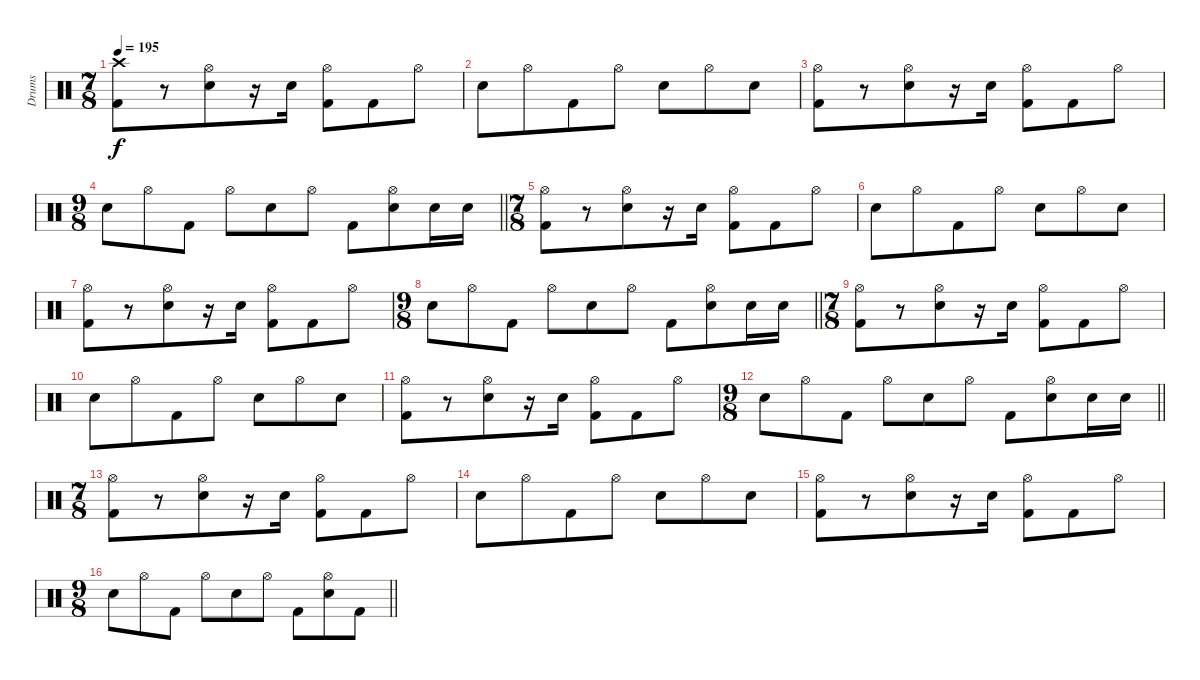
\track ("Drums" "Drums") {instrument percussion}
\staff {score}
\articulation defaults
\ts (7 8)
\tempo 195
\clef neutral
\ks c
("Crash high (hit)" "Kick (hit) 2").8{dy f} r.8 ("Hi-Hat (open)" "Electric Snare (hit)").8 r.16 "Electric Snare (hit)".16 ("Hi-Hat (open)" "Kick (hit) 2").8 "Kick (hit) 2".8 "Hi-Hat (open)".8 |
"Electric Snare (hit)".8 "Hi-Hat (open)".8 "Kick (hit) 2".8 "Hi-Hat (open)".8 "Electric Snare (hit)".8 "Hi-Hat (open)".8 "Electric Snare (hit)".8 |
("Hi-Hat (open)" "Kick (hit) 2").8 r.8 ("Hi-Hat (open)" "Electric Snare (hit)").8 r.16 "Electric Snare (hit)".16 ("Hi-Hat (open)" "Kick (hit) 2").8 "Kick (hit) 2".8 "Hi-Hat (open)".8 |
\ts (9 8)
\barLineRight lightlight "Electric Snare (hit)".8 "Hi-Hat (open)".8 "Kick (hit) 2".8 "Hi-Hat (open)".8 "Electric Snare (hit)".8 "Hi-Hat (open)".8 "Kick (hit) 2".8
("Hi-Hat (open)" "Electric Snare (hit)").8 "Electric Snare (hit)".16 "Electric Snare (hit)".16 |
\ts (7 8)
("Hi-Hat (open)" "Kick (hit) 2").8 r.8 ("Hi-Hat (open)" "Electric Snare (hit)").8 r.16 "Electric Snare (hit)".16 ("Hi-Hat (open)" "Kick (hit) 2").8 "Kick (hit) 2".8 "Hi-Hat (open)".8 |
"Electric Snare (hit)".8 "Hi-Hat (open)".8 "Kick (hit) 2".8 "Hi-Hat (open)".8 "Electric Snare (hit)".8 "Hi-Hat (open)".8 "Electric Snare (hit)".8 |
("Hi-Hat (open)" "Kick (hit) 2").8 r.8 ("Hi-Hat (open)" "Electric Snare (hit)").8 r.16 "Electric Snare (hit)".16 ("Hi-Hat (open)" "Kick (hit) 2").8 "Kick (hit) 2".8 "Hi-Hat (open)".8 |
\ts (9 8)
\barLineRight lightlight "Electric Snare (hit)".8 "Hi-Hat (open)".8 "Kick (hit) 2".8 "Hi-Hat (open)".8 "Electric Snare (hit)".8 "Hi-Hat (open)".8 "Kick (hit) 2".8
("Hi-Hat (open)" "Electric Snare (hit)").8 "Electric Snare (hit)".16 "Electric Snare (hit)".16 |
\ts (7 8)
("Hi-Hat (open)" "Kick (hit) 2").8 r.8 ("Hi-Hat (open)" "Electric Snare (hit)").8 r.16 "Electric Snare (hit)".16 ("Hi-Hat (open)" "Kick (hit) 2").8 "Kick (hit) 2".8 "Hi-Hat (open)".8 |
"Electric Snare (hit)".8 "Hi-Hat (open)".8 "Kick (hit) 2".8 "Hi-Hat (open)".8 "Electric Snare (hit)".8 "Hi-Hat (open)".8 "Electric Snare (hit)".8 |
("Hi-Hat (open)" "Kick (hit) 2").8 r.8 ("Hi-Hat (open)" "Electric Snare (hit)").8 r.16 "Electric Snare (hit)".16 ("Hi-Hat (open)" "Kick (hit) 2").8 "Kick (hit) 2".8 "Hi-Hat (open)".8 |
\ts (9 8)
\barLineRight lightlight "Electric Snare (hit)".8 "Hi-Hat (open)".8 "Kick (hit) 2".8 "Hi-Hat (open)".8 "Electric Snare (hit)".8 "Hi-Hat (open)".8 "Kick (hit) 2".8
("Hi-Hat (open)" "Electric Snare (hit)").8 "Electric Snare (hit)".16 "Electric Snare (hit)".16 |
\ts (7 8)
("Hi-Hat (open)" "Kick (hit) 2").8 r.8 ("Hi-Hat (open)" "Electric Snare (hit)").8 r.16 "Electric Snare (hit)".16 ("Hi-Hat (open)" "Kick (hit) 2").8 "Kick (hit) 2".8 "Hi-Hat (open)".8 |
"Electric Snare (hit)".8 "Hi-Hat (open)".8 "Kick (hit) 2".8 "Hi-Hat (open)".8 "Electric Snare (hit)".8 "Hi-Hat (open)".8 "Electric Snare (hit)".8 |
("Hi-Hat (open)" "Kick (hit) 2").8 r.8 ("Hi-Hat (open)" "Electric Snare (hit)").8 r.16 "Electric Snare (hit)".16 ("Hi-Hat (open)" "Kick (hit) 2").8 "Kick (hit) 2".8 "Hi-Hat (open)".8 |
\ts (9 8)
\barLineRight lightlight "Electric Snare (hit)".8 "Hi-Hat (open)".8 "Kick (hit) 2".8 "Hi-Hat (open)".8 "Electric Snare (hit)".8 "Hi-Hat (open)".8 "Kick (hit) 2".8
("Hi-Hat (open)" "Electric Snare (hit)").8 "Kick (hit) 2".8
